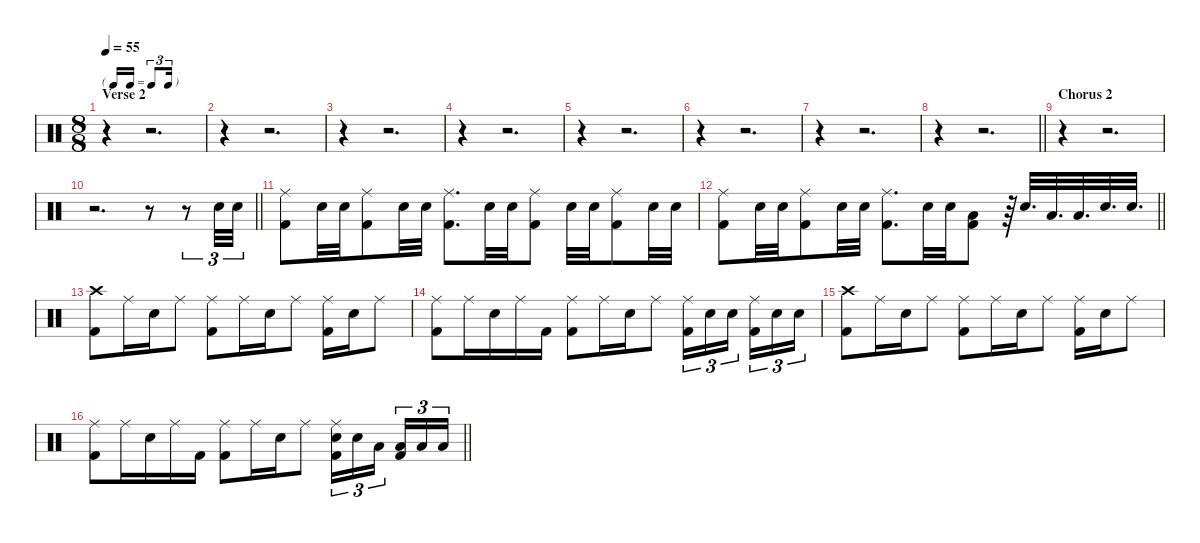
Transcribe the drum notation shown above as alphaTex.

\defaultSystemsLayout 4
\hideDynamics
\bracketExtendMode nobrackets
\singleTrackTrackNamePolicy hidden
\multiTrackTrackNamePolicy hidden
\otherSystemsTrackNameOrientation horizontal
\track ("Phil Selway(drums)" "drm.") {instrument percussion}
\staff {score}
\articulation defaults
\ts (8 8)
\tf triplet16th
\section ("" "Verse 2")
\tempo 55
\clef neutral
\ks c
r.4{dy f beam Down} r.2{d beam Down} |
r.4{beam Down} r.2{d beam Down} |
r.4{beam Down} r.2{d beam Down} |
r.4{beam Down} r.2{d beam Down} |
r.4{beam Down} r.2{d beam Down} |
r.4{beam Down} r.2{d beam Down} |
r.4{beam Down} r.2{d beam Down} |
\barLineRight lightlight
r.4{beam Down} r.2{d beam Down} |
\section ("" "Chorus 2")
r.4{beam Down} r.2{d beam Down} |
\barLineRight lightlight
r.2{d beam Down} r.8{beam Down} r.8{tu (3 2) beam Down} "Snare (hit) 2".32{tu (3 2) beam Down} "Snare (hit) 2".32{tu (3 2) beam Down} |
("Ride (middle)" "Kick (hit) 2").8{beam Down} "Snare (hit) 2".32{beam Down} "Snare (hit) 2".32{beam Down} ("Ride (middle)" "Kick (hit) 2").8{beam Down} "Snare (hit) 2".32{beam Down} "Snare (hit) 2".32{beam Down} ("Ride (middle)" "Kick (hit) 2").8{d beam Down} "Snare (hit) 2".32{beam Down} "Snare (hit) 2".32{beam Down} ("Ride (middle)" "Kick (hit) 2").8{beam Down} "Snare (hit) 2".32{beam Down} "Snare (hit) 2".32{beam Down} ("Ride (middle)" "Kick (hit) 2").8{beam Down} "Snare (hit) 2".32{beam Down} "Snare (hit) 2".32{beam Down} |
\barLineRight lightlight
("Ride (middle)" "Kick (hit) 2").8{beam Down} "Snare (hit) 2".32{beam Down} "Snare (hit) 2".32{beam Down} ("Ride (middle)" "Kick (hit) 2").8{beam Down} "Snare (hit) 2".32{beam Down} "Snare (hit) 2".32{beam Down} ("Ride (middle)" "Kick (hit) 2").8{d beam Down} "Snare (hit) 2".32{beam Up} "Snare (hit) 2".32{beam Up} ("Low Tom (hit)" "Kick (hit) 2").8{beam Up} r.64{beam Up} "Snare (hit) 2".32{d beam Down} "Low Tom (hit)".32{d beam Down} "Low Tom (hit)".32{d beam Down} "Snare (hit) 2".32{d beam Down} "Snare (hit) 2".32{d beam Down} |
("Crash high (hit)" "Kick (hit) 2").8{beam Down} "Ride (middle)".16{beam Down} "Snare (hit) 2".16{beam Down} "Ride (middle)".8{beam Down} ("Ride (middle)" "Kick (hit) 2").8{beam Down} "Ride (middle)".16{beam Down} "Snare (hit) 2".16{beam Down} "Ride (middle)".8{beam Down} ("Ride (middle)" "Kick (hit) 2").16{beam Down} "Snare (hit) 2".16{beam Down} "Ride (middle)".8{beam Down} |
("Ride (middle)" "Kick (hit) 2").8{beam Down} "Ride (middle)".16{beam Down} "Snare (hit) 2".16{beam Down} "Ride (middle)".16{beam Down} "Kick (hit) 2".16{beam Down} ("Ride (middle)" "Kick (hit) 2").8{beam Down} "Ride (middle)".16{beam Down} "Snare (hit) 2".16{beam Down} "Ride (middle)".8{beam Down} ("Ride (middle)" "Kick (hit) 2").16{tu (3 2) beam Down} "Snare (hit) 2".16{tu (3 2) beam Down} "Snare (hit) 2".16{tu (3 2) beam Down} ("Ride (middle)" "Kick (hit) 2").16{tu (3 2) beam Down} "Snare (hit) 2".16{tu (3 2) beam Down} "Snare (hit) 2".16{tu (3 2) beam Down} |
("Crash high (hit)" "Kick (hit) 2").8{beam Down} "Ride (middle)".16{beam Down} "Snare (hit) 2".16{beam Down} "Ride (middle)".8{beam Down} ("Ride (middle)" "Kick (hit) 2").8{beam Down} "Ride (middle)".16{beam Down} "Snare (hit) 2".16{beam Down} "Ride (middle)".8{beam Down} ("Ride (middle)" "Kick (hit) 2").16{beam Down} "Snare (hit) 2".16{beam Down} "Ride (middle)".8{beam Down} |
\barLineRight lightlight
("Ride (middle)" "Kick (hit) 2").8{beam Down} "Ride (middle)".16{beam Down} "Snare (hit) 2".16{beam Down} "Ride (middle)".16{beam Down} "Kick (hit) 2".16{beam Down} ("Ride (middle)" "Kick (hit) 2").8{beam Down} "Ride (middle)".16{beam Down} "Snare (hit) 2".16{beam Down} "Ride (middle)".8{beam Down} ("Ride (middle)" "Snare (hit) 2" "Kick (hit) 2").16{tu (3 2) beam Down} "Snare (hit) 2".16{tu (3 2) beam Down} "Low Tom (hit)".16{tu (3 2) beam Down} ("Low Tom (hit)" "Kick (hit) 2").16{tu (3 2) beam Up} "Low Floor Tom (hit)".16{tu (3 2) beam Up} "Low Floor Tom (hit)".16{tu (3 2) beam Up}
